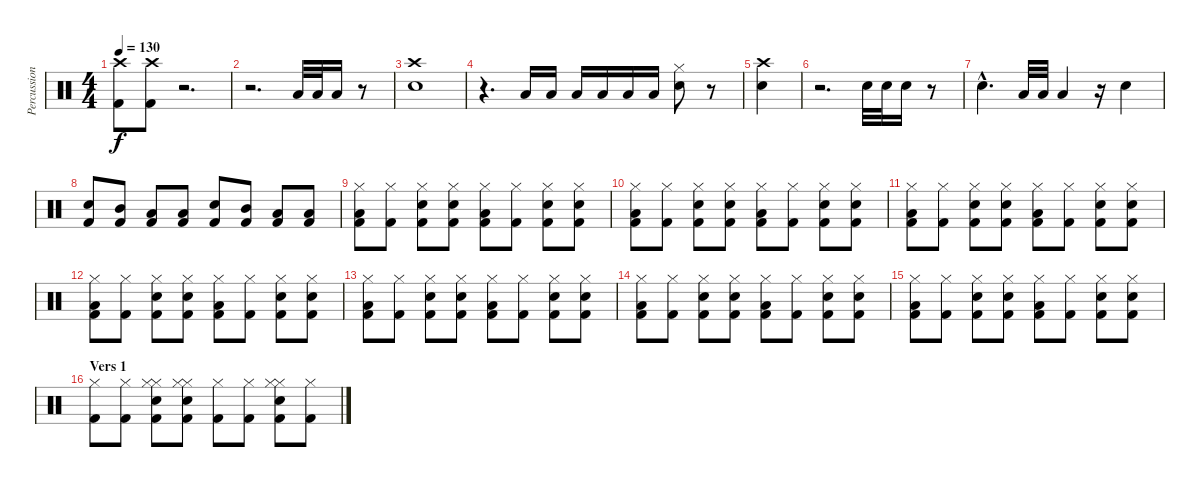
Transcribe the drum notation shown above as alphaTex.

\track ("Percussion" "Percussion") {instrument percussion}
\staff {score}
\articulation defaults
\ts (4 4)
\tempo 130
\clef neutral
\ks c
("Crash high (hit)" "Kick (hit) 2").8{dy f} ("Crash high (hit)" "Kick (hit) 2").8 r.2{d} |
r.2{d} "Low Tom (hit)".32 "Low Tom (hit)".32 "Low Tom (hit)".16 r.8 |
("Crash high (hit)" "Snare (hit) 2").1 |
r.4{d} "Low Tom (hit)".16 "Low Tom (hit)".16 "Low Tom (hit)".16 "Low Tom (hit)".16 "Low Tom (hit)".16 "Low Tom (hit)".16 ("Hi-Hat (closed)" "Snare (hit) 2").8 r.8 |
("Crash high (hit)" "Snare (hit) 2").4 |
r.2{d} "Snare (hit) 2".32 "Snare (hit) 2".32 "Snare (hit) 2".16 r.8 |
"Snare (hit) 2"{hac}.4{d} "Low Tom (hit)".32 "Low Tom (hit)".32 "Low Tom (hit)".4 r.16 "Snare (hit) 2".4 |
("Snare (hit) 2" "Kick (hit) 2").8 ("Mid Tom (hit)" "Kick (hit) 2").8 ("Low Tom (hit)" "Kick (hit) 2").8 ("Low Floor Tom (hit)" "Kick (hit) 2").8 ("Snare (hit) 2" "Kick (hit) 2").8 ("Mid Tom (hit)" "Kick (hit) 2").8 ("Low Tom (hit)" "Kick (hit) 2").8 ("Low Floor Tom (hit)" "Kick (hit) 2").8 |
("Hi-Hat (closed)" "Low Tom (hit)" "Kick (hit) 2").8 ("Hi-Hat (closed)" "Kick (hit) 2").8 ("Hi-Hat (closed)" "Snare (hit) 2" "Kick (hit) 2").8 ("Hi-Hat (closed)" "Snare (hit) 2" "Kick (hit) 2").8 ("Hi-Hat (closed)" "Low Tom (hit)" "Kick (hit) 2").8 ("Hi-Hat (closed)" "Kick (hit) 2").8 ("Hi-Hat (closed)" "Snare (hit) 2" "Kick (hit) 2").8 ("Hi-Hat (closed)" "Snare (hit) 2" "Kick (hit) 2").8 |
("Hi-Hat (closed)" "Low Tom (hit)" "Kick (hit) 2").8 ("Hi-Hat (closed)" "Kick (hit) 2").8 ("Hi-Hat (closed)" "Snare (hit) 2" "Kick (hit) 2").8 ("Hi-Hat (closed)" "Snare (hit) 2" "Kick (hit) 2").8 ("Hi-Hat (closed)" "Low Tom (hit)" "Kick (hit) 2").8 ("Hi-Hat (closed)" "Kick (hit) 2").8 ("Hi-Hat (closed)" "Snare (hit) 2" "Kick (hit) 2").8 ("Hi-Hat (closed)" "Snare (hit) 2" "Kick (hit) 2").8 |
("Hi-Hat (closed)" "Low Floor Tom (hit)" "Kick (hit) 2").8 ("Hi-Hat (closed)" "Kick (hit) 2").8 ("Hi-Hat (closed)" "Snare (hit) 2" "Kick (hit) 2").8 ("Hi-Hat (closed)" "Snare (hit) 2" "Kick (hit) 2").8 ("Hi-Hat (closed)" "Low Floor Tom (hit)" "Kick (hit) 2").8 ("Hi-Hat (closed)" "Kick (hit) 2").8 ("Hi-Hat (closed)" "Snare (hit) 2" "Kick (hit) 2").8 ("Hi-Hat (closed)" "Snare (hit) 2" "Kick (hit) 2").8 |
("Hi-Hat (closed)" "Low Floor Tom (hit)" "Kick (hit) 2").8 ("Hi-Hat (closed)" "Kick (hit) 2").8 ("Hi-Hat (closed)" "Snare (hit) 2" "Kick (hit) 2").8 ("Hi-Hat (closed)" "Snare (hit) 2" "Kick (hit) 2").8 ("Hi-Hat (closed)" "Low Floor Tom (hit)" "Kick (hit) 2").8 ("Hi-Hat (closed)" "Kick (hit) 2").8 ("Hi-Hat (closed)" "Snare (hit) 2" "Kick (hit) 2").8 ("Hi-Hat (closed)" "Snare (hit) 2" "Kick (hit) 2").8 |
("Hi-Hat (closed)" "Low Tom (hit)" "Kick (hit) 2").8 ("Hi-Hat (closed)" "Kick (hit) 2").8 ("Hi-Hat (closed)" "Snare (hit) 2" "Kick (hit) 2").8 ("Hi-Hat (closed)" "Snare (hit) 2" "Kick (hit) 2").8 ("Hi-Hat (closed)" "Low Tom (hit)" "Kick (hit) 2").8 ("Hi-Hat (closed)" "Kick (hit) 2").8 ("Hi-Hat (closed)" "Snare (hit) 2" "Kick (hit) 2").8 ("Hi-Hat (closed)" "Snare (hit) 2" "Kick (hit) 2").8 |
("Hi-Hat (closed)" "Low Floor Tom (hit)" "Kick (hit) 2").8 ("Hi-Hat (closed)" "Kick (hit) 2").8 ("Hi-Hat (closed)" "Snare (hit) 2" "Kick (hit) 2").8 ("Hi-Hat (closed)" "Snare (hit) 2" "Kick (hit) 2").8 ("Hi-Hat (closed)" "Low Floor Tom (hit)" "Kick (hit) 2").8 ("Hi-Hat (closed)" "Kick (hit) 2").8 ("Hi-Hat (closed)" "Snare (hit) 2" "Kick (hit) 2").8 ("Hi-Hat (closed)" "Snare (hit) 2" "Kick (hit) 2").8 |
("Hi-Hat (closed)" "Low Floor Tom (hit)" "Kick (hit) 2").8 ("Hi-Hat (closed)" "Kick (hit) 2").8 ("Hi-Hat (closed)" "Snare (hit) 2" "Kick (hit) 2").8 ("Hi-Hat (closed)" "Snare (hit) 2" "Kick (hit) 2").8 ("Hi-Hat (closed)" "Low Floor Tom (hit)" "Kick (hit) 2").8 ("Hi-Hat (closed)" "Kick (hit) 2").8 ("Hi-Hat (closed)" "Snare (hit) 2" "Kick (hit) 2").8 ("Hi-Hat (closed)" "Snare (hit) 2" "Kick (hit) 2").8 |
\section ("" "Vers 1")
("Hi-Hat (closed)" "Kick (hit) 2").8 ("Hi-Hat (closed)" "Kick (hit) 2").8 ("Hi-Hat (closed)" "Hi-Hat (closed)" "Snare (hit) 2" "Kick (hit) 2").8 ("Hi-Hat (closed)" "Hi-Hat (closed)" "Snare (hit) 2" "Kick (hit) 2").8 ("Hi-Hat (closed)" "Kick (hit) 2").8 ("Hi-Hat (closed)" "Kick (hit) 2").8 ("Hi-Hat (closed)" "Hi-Hat (closed)" "Snare (hit) 2" "Kick (hit) 2").8 ("Hi-Hat (closed)" "Kick (hit) 2").8
